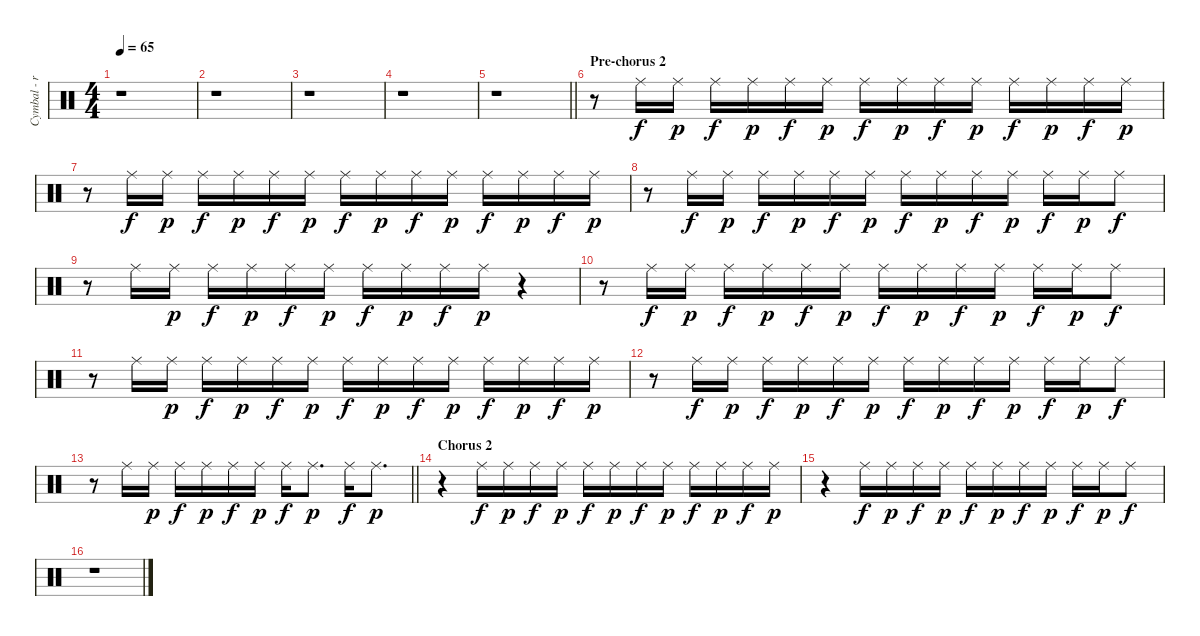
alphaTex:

\track ("Cymbal - ride" "Cymbal - r") {instrument percussion}
\staff {score}
\articulation defaults
\ts (4 4)
\tempo 65
\clef neutral
\ks c
r.1{dy f} |
r.1 |
r.1 |
r.1 |
\barLineRight lightlight
r.1 |
\section ("" "Pre-chorus 2")
r.8 "Ride (middle)".16 "Ride (middle)".16{dy p} "Ride (middle)".16{dy f} "Ride (middle)".16{dy p} "Ride (middle)".16{dy f} "Ride (middle)".16{dy p} "Ride (middle)".16{dy f} "Ride (middle)".16{dy p} "Ride (middle)".16{dy f} "Ride (middle)".16{dy p} "Ride (middle)".16{dy f} "Ride (middle)".16{dy p} "Ride (middle)".16{dy f} "Ride (middle)".16{dy p} |
r.8 "Ride (middle)".16{dy f} "Ride (middle)".16{dy p} "Ride (middle)".16{dy f} "Ride (middle)".16{dy p} "Ride (middle)".16{dy f} "Ride (middle)".16{dy p} "Ride (middle)".16{dy f} "Ride (middle)".16{dy p} "Ride (middle)".16{dy f} "Ride (middle)".16{dy p} "Ride (middle)".16{dy f} "Ride (middle)".16{dy p} "Ride (middle)".16{dy f} "Ride (middle)".16{dy p} |
r.8 "Ride (middle)".16{dy f} "Ride (middle)".16{dy p} "Ride (middle)".16{dy f} "Ride (middle)".16{dy p} "Ride (middle)".16{dy f} "Ride (middle)".16{dy p} "Ride (middle)".16{dy f} "Ride (middle)".16{dy p} "Ride (middle)".16{dy f} "Ride (middle)".16{dy p} "Ride (middle)".16{dy f} "Ride (middle)".16{dy p} "Ride (middle)".8{dy f} |
r.8 "Ride (middle)".16 "Ride (middle)".16{dy p} "Ride (middle)".16{dy f} "Ride (middle)".16{dy p} "Ride (middle)".16{dy f} "Ride (middle)".16{dy p} "Ride (middle)".16{dy f} "Ride (middle)".16{dy p} "Ride (middle)".16{dy f} "Ride (middle)".16{dy p} r.4 |
r.8 "Ride (middle)".16{dy f} "Ride (middle)".16{dy p} "Ride (middle)".16{dy f} "Ride (middle)".16{dy p} "Ride (middle)".16{dy f} "Ride (middle)".16{dy p} "Ride (middle)".16{dy f} "Ride (middle)".16{dy p} "Ride (middle)".16{dy f} "Ride (middle)".16{dy p} "Ride (middle)".16{dy f} "Ride (middle)".16{dy p} "Ride (middle)".8{dy f} |
r.8 "Ride (middle)".16 "Ride (middle)".16{dy p} "Ride (middle)".16{dy f} "Ride (middle)".16{dy p} "Ride (middle)".16{dy f} "Ride (middle)".16{dy p} "Ride (middle)".16{dy f} "Ride (middle)".16{dy p} "Ride (middle)".16{dy f} "Ride (middle)".16{dy p} "Ride (middle)".16{dy f} "Ride (middle)".16{dy p} "Ride (middle)".16{dy f} "Ride (middle)".16{dy p} |
r.8 "Ride (middle)".16{dy f} "Ride (middle)".16{dy p} "Ride (middle)".16{dy f} "Ride (middle)".16{dy p} "Ride (middle)".16{dy f} "Ride (middle)".16{dy p} "Ride (middle)".16{dy f} "Ride (middle)".16{dy p} "Ride (middle)".16{dy f} "Ride (middle)".16{dy p} "Ride (middle)".16{dy f} "Ride (middle)".16{dy p} "Ride (middle)".8{dy f} |
\barLineRight lightlight
r.8 "Ride (middle)".16 "Ride (middle)".16{dy p} "Ride (middle)".16{dy f} "Ride (middle)".16{dy p} "Ride (middle)".16{dy f} "Ride (middle)".16{dy p} "Ride (middle)".16{dy f} "Ride (middle)".8{d dy p} "Ride (middle)".16{dy f} "Ride (middle)".8{d dy p} |
\section ("" "Chorus 2")
r.4 "Ride (middle)".16{dy f} "Ride (middle)".16{dy p} "Ride (middle)".16{dy f} "Ride (middle)".16{dy p} "Ride (middle)".16{dy f} "Ride (middle)".16{dy p} "Ride (middle)".16{dy f} "Ride (middle)".16{dy p} "Ride (middle)".16{dy f} "Ride (middle)".16{dy p} "Ride (middle)".16{dy f} "Ride (middle)".16{dy p} |
r.4 "Ride (middle)".16{dy f} "Ride (middle)".16{dy p} "Ride (middle)".16{dy f} "Ride (middle)".16{dy p} "Ride (middle)".16{dy f} "Ride (middle)".16{dy p} "Ride (middle)".16{dy f} "Ride (middle)".16{dy p} "Ride (middle)".16{dy f} "Ride (middle)".16{dy p} "Ride (middle)".8{dy f} |
r.1
